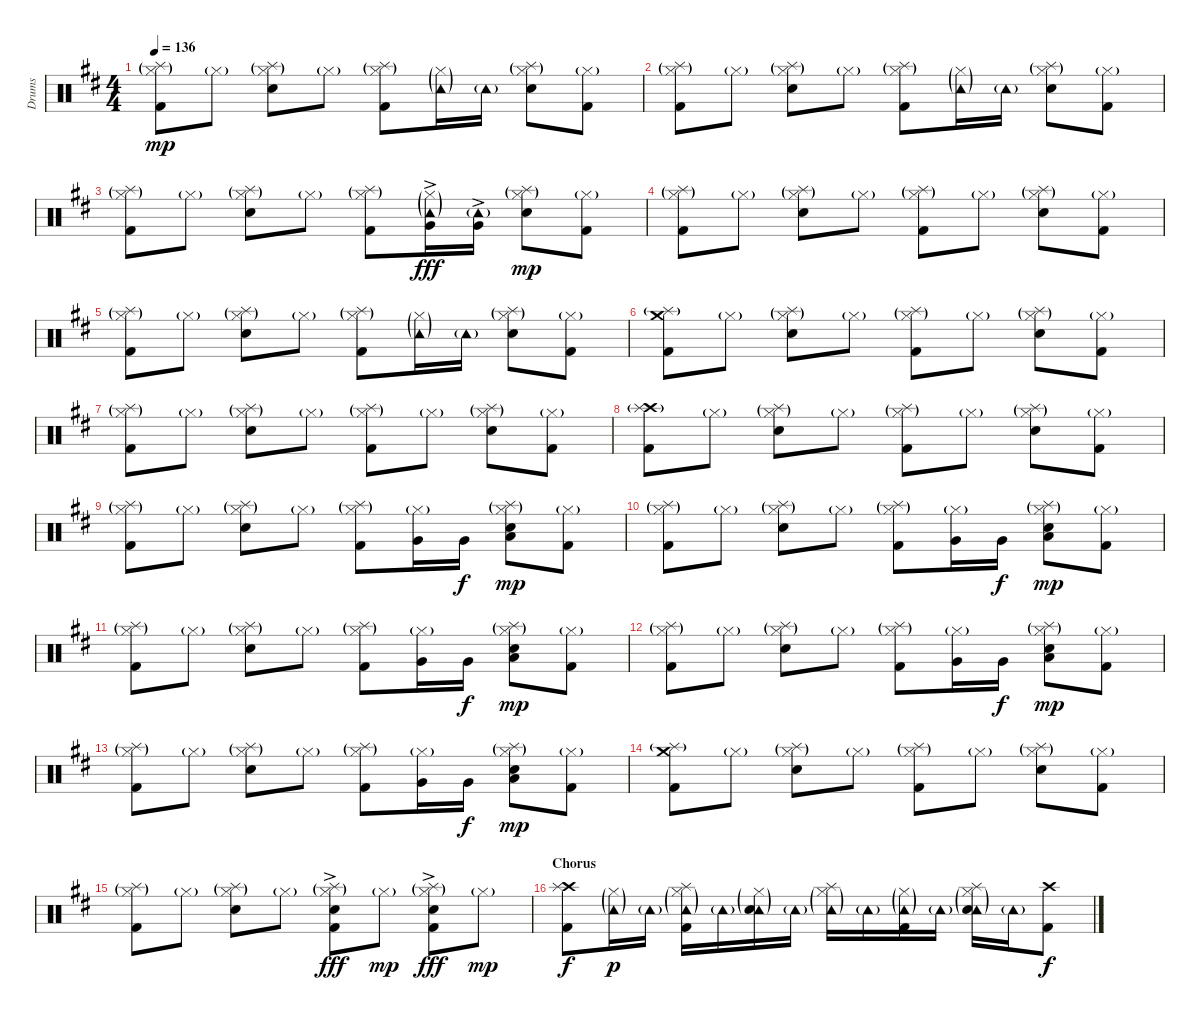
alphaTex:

\track ("Drums" "Drums") {instrument percussion}
\staff {score}
\articulation defaults
\ts (4 4)
\tempo 136
\clef neutral
\ks d
("Hi-Hat (closed)"{g} "Splash (hit)"{g} "Kick (hit) 2").8{dy mp} "Hi-Hat (closed)"{g}.8 ("Hi-Hat (closed)"{g} "Splash (hit)"{g} "Snare (hit) 2").8 "Hi-Hat (closed)"{g}.8 ("Hi-Hat (closed)"{g} "Splash (hit)"{g} "Kick (hit) 2").8 ("Hi-Hat (closed)"{g} "Tambourine (hit)"{g}).16 "Tambourine (hit)"{g}.16 ("Hi-Hat (closed)"{g} "Splash (hit)"{g} "Snare (hit) 2").8 ("Hi-Hat (closed)"{g} "Kick (hit) 2").8 |
("Hi-Hat (closed)"{g} "Splash (hit)"{g} "Kick (hit) 2").8 "Hi-Hat (closed)"{g}.8 ("Hi-Hat (closed)"{g} "Splash (hit)"{g} "Snare (hit) 2").8 "Hi-Hat (closed)"{g}.8 ("Hi-Hat (closed)"{g} "Splash (hit)"{g} "Kick (hit) 2").8 ("Hi-Hat (closed)"{g} "Tambourine (hit)"{g}).16 "Tambourine (hit)"{g}.16 ("Hi-Hat (closed)"{g} "Splash (hit)"{g} "Snare (hit) 2").8 ("Hi-Hat (closed)"{g} "Kick (hit) 2").8 |
("Hi-Hat (closed)"{g} "Splash (hit)"{g} "Kick (hit) 2").8 "Hi-Hat (closed)"{g}.8 ("Hi-Hat (closed)"{g} "Splash (hit)"{g} "Snare (hit) 2").8 "Hi-Hat (closed)"{g}.8 ("Hi-Hat (closed)"{g} "Splash (hit)"{g} "Kick (hit) 2").8 ("Hi-Hat (closed)"{g} "Tambourine (hit)"{g} "Very Low Tom (hit)"{ac}).16{dy fff} ("Tambourine (hit)"{g} "Very Low Tom (hit)"{ac}).16 ("Hi-Hat (closed)"{g} "Splash (hit)"{g} "Snare (hit) 2").8{dy mp} ("Hi-Hat (closed)"{g} "Kick (hit) 2").8 |
("Hi-Hat (closed)"{g} "Splash (hit)"{g} "Kick (hit) 2").8 "Hi-Hat (closed)"{g}.8 ("Hi-Hat (closed)"{g} "Splash (hit)"{g} "Snare (hit) 2").8 "Hi-Hat (closed)"{g}.8 ("Hi-Hat (closed)"{g} "Splash (hit)"{g} "Kick (hit) 2").8 "Hi-Hat (closed)"{g}.8 ("Hi-Hat (closed)"{g} "Splash (hit)"{g} "Snare (hit) 2").8 ("Hi-Hat (closed)"{g} "Kick (hit) 2").8 |
("Hi-Hat (closed)"{g} "Splash (hit)"{g} "Kick (hit) 2").8 "Hi-Hat (closed)"{g}.8 ("Hi-Hat (closed)"{g} "Splash (hit)"{g} "Snare (hit) 2").8 "Hi-Hat (closed)"{g}.8 ("Hi-Hat (closed)"{g} "Splash (hit)"{g} "Kick (hit) 2").8 ("Hi-Hat (closed)"{g} "Tambourine (hit)"{g}).16 "Tambourine (hit)"{g}.16 ("Hi-Hat (closed)"{g} "Splash (hit)"{g} "Snare (hit) 2").8 ("Hi-Hat (closed)"{g} "Kick (hit) 2").8 |
("Crash medium (hit)" "Splash (hit)"{g} "Kick (hit) 2").8 "Hi-Hat (closed)"{g}.8 ("Hi-Hat (closed)"{g} "Splash (hit)"{g} "Snare (hit) 2").8 "Hi-Hat (closed)"{g}.8 ("Hi-Hat (closed)"{g} "Splash (hit)"{g} "Kick (hit) 2").8 "Hi-Hat (closed)"{g}.8 ("Hi-Hat (closed)"{g} "Splash (hit)"{g} "Snare (hit) 2").8 ("Hi-Hat (closed)"{g} "Kick (hit) 2").8 |
("Hi-Hat (closed)"{g} "Splash (hit)"{g} "Kick (hit) 2").8 "Hi-Hat (closed)"{g}.8 ("Hi-Hat (closed)"{g} "Splash (hit)"{g} "Snare (hit) 2").8 "Hi-Hat (closed)"{g}.8 ("Hi-Hat (closed)"{g} "Splash (hit)"{g} "Kick (hit) 2").8 "Hi-Hat (closed)"{g}.8 ("Hi-Hat (closed)"{g} "Splash (hit)"{g} "Snare (hit) 2").8 ("Hi-Hat (closed)"{g} "Kick (hit) 2").8 |
("Crash high (hit)" "Splash (hit)"{g} "Kick (hit) 2").8 "Hi-Hat (closed)"{g}.8 ("Hi-Hat (closed)"{g} "Splash (hit)"{g} "Snare (hit) 2").8 "Hi-Hat (closed)"{g}.8 ("Hi-Hat (closed)"{g} "Splash (hit)"{g} "Kick (hit) 2").8 "Hi-Hat (closed)"{g}.8 ("Hi-Hat (closed)"{g} "Splash (hit)"{g} "Snare (hit) 2").8 ("Hi-Hat (closed)"{g} "Kick (hit) 2").8 |
("Hi-Hat (closed)"{g} "Splash (hit)"{g} "Kick (hit) 2").8 "Hi-Hat (closed)"{g}.8 ("Hi-Hat (closed)"{g} "Splash (hit)"{g} "Snare (hit) 2").8 "Hi-Hat (closed)"{g}.8 ("Hi-Hat (closed)"{g} "Splash (hit)"{g} "Kick (hit) 2").8 ("Hi-Hat (closed)"{g} "Very Low Tom (hit)").16 "Very Low Tom (hit)".16{dy f} ("Hi-Hat (closed)"{g} "Splash (hit)"{g} "Low Floor Tom (hit)" "Snare (hit) 2").8{dy mp} ("Hi-Hat (closed)"{g} "Kick (hit) 2").8 |
("Hi-Hat (closed)"{g} "Splash (hit)"{g} "Kick (hit) 2").8 "Hi-Hat (closed)"{g}.8 ("Hi-Hat (closed)"{g} "Splash (hit)"{g} "Snare (hit) 2").8 "Hi-Hat (closed)"{g}.8 ("Hi-Hat (closed)"{g} "Splash (hit)"{g} "Kick (hit) 2").8 ("Hi-Hat (closed)"{g} "Very Low Tom (hit)").16 "Very Low Tom (hit)".16{dy f} ("Hi-Hat (closed)"{g} "Splash (hit)"{g} "Low Floor Tom (hit)" "Snare (hit) 2").8{dy mp} ("Hi-Hat (closed)"{g} "Kick (hit) 2").8 |
("Hi-Hat (closed)"{g} "Splash (hit)"{g} "Kick (hit) 2").8 "Hi-Hat (closed)"{g}.8 ("Hi-Hat (closed)"{g} "Splash (hit)"{g} "Snare (hit) 2").8 "Hi-Hat (closed)"{g}.8 ("Hi-Hat (closed)"{g} "Splash (hit)"{g} "Kick (hit) 2").8 ("Hi-Hat (closed)"{g} "Very Low Tom (hit)").16 "Very Low Tom (hit)".16{dy f} ("Hi-Hat (closed)"{g} "Splash (hit)"{g} "Low Floor Tom (hit)" "Snare (hit) 2").8{dy mp} ("Hi-Hat (closed)"{g} "Kick (hit) 2").8 |
("Hi-Hat (closed)"{g} "Splash (hit)"{g} "Kick (hit) 2").8 "Hi-Hat (closed)"{g}.8 ("Hi-Hat (closed)"{g} "Splash (hit)"{g} "Snare (hit) 2").8 "Hi-Hat (closed)"{g}.8 ("Hi-Hat (closed)"{g} "Splash (hit)"{g} "Kick (hit) 2").8 ("Hi-Hat (closed)"{g} "Very Low Tom (hit)").16 "Very Low Tom (hit)".16{dy f} ("Hi-Hat (closed)"{g} "Splash (hit)"{g} "Low Floor Tom (hit)" "Snare (hit) 2").8{dy mp} ("Hi-Hat (closed)"{g} "Kick (hit) 2").8 |
("Hi-Hat (closed)"{g} "Splash (hit)"{g} "Kick (hit) 2").8 "Hi-Hat (closed)"{g}.8 ("Hi-Hat (closed)"{g} "Splash (hit)"{g} "Snare (hit) 2").8 "Hi-Hat (closed)"{g}.8 ("Hi-Hat (closed)"{g} "Splash (hit)"{g} "Kick (hit) 2").8 ("Hi-Hat (closed)"{g} "Very Low Tom (hit)").16 "Very Low Tom (hit)".16{dy f} ("Hi-Hat (closed)"{g} "Splash (hit)"{g} "Low Floor Tom (hit)" "Snare (hit) 2").8{dy mp} ("Hi-Hat (closed)"{g} "Kick (hit) 2").8 |
("Crash medium (hit)" "Splash (hit)"{g} "Kick (hit) 2").8 "Hi-Hat (closed)"{g}.8 ("Hi-Hat (closed)"{g} "Splash (hit)"{g} "Snare (hit) 2").8 "Hi-Hat (closed)"{g}.8 ("Hi-Hat (closed)"{g} "Splash (hit)"{g} "Kick (hit) 2").8 "Hi-Hat (closed)"{g}.8 ("Hi-Hat (closed)"{g} "Splash (hit)"{g} "Snare (hit) 2").8 ("Hi-Hat (closed)"{g} "Kick (hit) 2").8 |
("Hi-Hat (closed)"{g} "Splash (hit)"{g} "Kick (hit) 2").8 "Hi-Hat (closed)"{g}.8 ("Hi-Hat (closed)"{g} "Splash (hit)"{g} "Snare (hit) 2").8 "Hi-Hat (closed)"{g}.8 ("Hi-Hat (closed)"{g} "Splash (hit)"{g} "Snare (hit) 2"{ac} "Kick (hit) 2").8{dy fff} "Hi-Hat (closed)"{g}.8{dy mp} ("Hi-Hat (closed)"{g} "Splash (hit)"{g} "Snare (hit) 2"{ac} "Kick (hit) 2").8{dy fff} "Hi-Hat (closed)"{g}.8{dy mp} |
\section ("" "Chorus")
("Crash high (hit)" "Splash (hit)" "Kick (hit) 2").8{dy f} ("Hi-Hat (closed)"{g} "Tambourine (hit)"{g}).16{dy p} "Tambourine (hit)"{g}.16 ("Hi-Hat (closed)"{g} "Splash (hit)" "Tambourine (hit)"{g} "Kick (hit) 2").16 "Tambourine (hit)"{g}.16 ("Hi-Hat (closed)"{g} "Tambourine (hit)"{g} "Snare (hit) 2").16 "Tambourine (hit)"{g}.16 ("Hi-Hat (closed)"{g} "Splash (hit)" "Tambourine (hit)"{g}).16 "Tambourine (hit)"{g}.16 ("Hi-Hat (closed)"{g} "Tambourine (hit)"{g} "Kick (hit) 2").16 "Tambourine (hit)"{g}.16 ("Hi-Hat (closed)"{g} "Splash (hit)" "Tambourine (hit)"{g} "Snare (hit) 2").16 "Tambourine (hit)"{g}.16 ("Crash high (hit)" "Kick (hit) 2").8{dy f}
